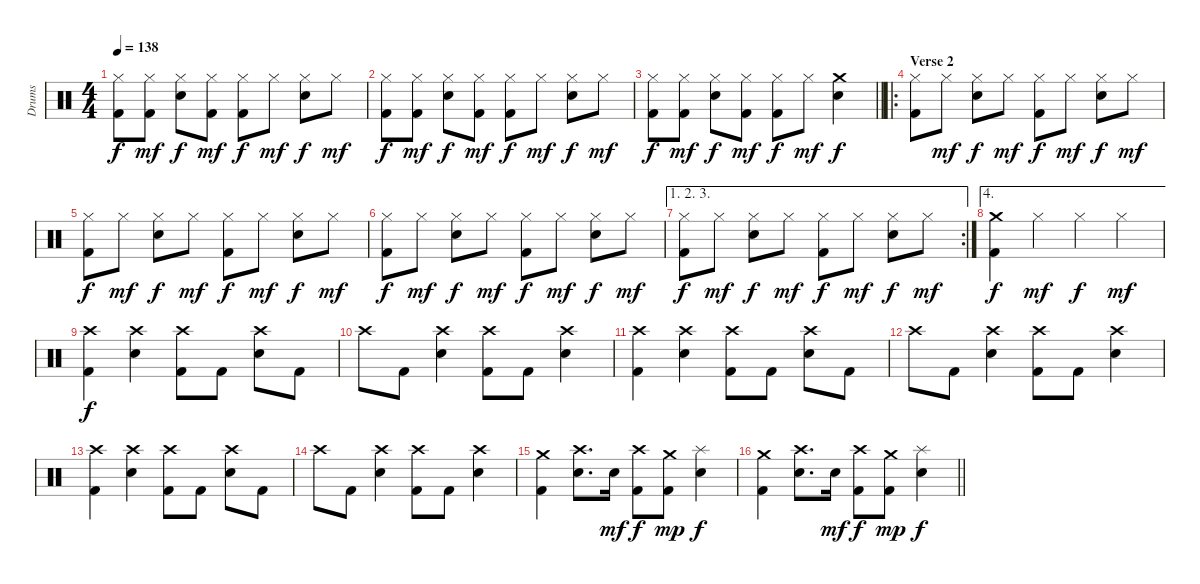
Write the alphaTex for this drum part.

\track ("Drums" "Drums") {instrument percussion}
\staff {score}
\articulation defaults
\ts (4 4)
\tempo 138
\clef neutral
\ks c
("Hi-Hat (closed)" "Kick (hit) 2").8{dy f} ("Hi-Hat (closed)" "Kick (hit) 2").8{dy mf} ("Hi-Hat (closed)" "Electric Snare (hit)").8{dy f} ("Hi-Hat (closed)" "Kick (hit) 2").8{dy mf} ("Hi-Hat (closed)" "Kick (hit) 2").8{dy f} "Hi-Hat (closed)".8{dy mf} ("Hi-Hat (closed)" "Electric Snare (hit)").8{dy f} "Hi-Hat (closed)".8{dy mf} |
("Hi-Hat (closed)" "Kick (hit) 2").8{dy f} ("Hi-Hat (closed)" "Kick (hit) 2").8{dy mf} ("Hi-Hat (closed)" "Electric Snare (hit)").8{dy f} ("Hi-Hat (closed)" "Kick (hit) 2").8{dy mf} ("Hi-Hat (closed)" "Kick (hit) 2").8{dy f} "Hi-Hat (closed)".8{dy mf} ("Hi-Hat (closed)" "Electric Snare (hit)").8{dy f} "Hi-Hat (closed)".8{dy mf} |
\barLineRight lightlight
("Hi-Hat (closed)" "Kick (hit) 2").8{dy f} ("Hi-Hat (closed)" "Kick (hit) 2").8{dy mf} ("Hi-Hat (closed)" "Electric Snare (hit)").8{dy f} ("Hi-Hat (closed)" "Kick (hit) 2").8{dy mf} ("Hi-Hat (closed)" "Kick (hit) 2").8{dy f} "Hi-Hat (closed)".8{dy mf} ("Crash medium (hit)" "Electric Snare (hit)").4{dy f} |
\ro
\section ("" "Verse 2")
("Hi-Hat (closed)" "Kick (hit) 2").8 "Hi-Hat (closed)".8{dy mf} ("Hi-Hat (closed)" "Electric Snare (hit)").8{dy f} "Hi-Hat (closed)".8{dy mf} ("Hi-Hat (closed)" "Kick (hit) 2").8{dy f} "Hi-Hat (closed)".8{dy mf} ("Hi-Hat (closed)" "Electric Snare (hit)").8{dy f} "Hi-Hat (closed)".8{dy mf} |
("Hi-Hat (closed)" "Kick (hit) 2").8{dy f} "Hi-Hat (closed)".8{dy mf} ("Hi-Hat (closed)" "Electric Snare (hit)").8{dy f} "Hi-Hat (closed)".8{dy mf} ("Hi-Hat (closed)" "Kick (hit) 2").8{dy f} "Hi-Hat (closed)".8{dy mf} ("Hi-Hat (closed)" "Electric Snare (hit)").8{dy f} "Hi-Hat (closed)".8{dy mf} |
("Hi-Hat (closed)" "Kick (hit) 2").8{dy f} "Hi-Hat (closed)".8{dy mf} ("Hi-Hat (closed)" "Electric Snare (hit)").8{dy f} "Hi-Hat (closed)".8{dy mf} ("Hi-Hat (closed)" "Kick (hit) 2").8{dy f} "Hi-Hat (closed)".8{dy mf} ("Hi-Hat (closed)" "Electric Snare (hit)").8{dy f} "Hi-Hat (closed)".8{dy mf} |
\ae (1 2 3)
\rc 2
("Hi-Hat (closed)" "Kick (hit) 2").8{dy f} "Hi-Hat (closed)".8{dy mf} ("Hi-Hat (closed)" "Electric Snare (hit)").8{dy f} "Hi-Hat (closed)".8{dy mf} ("Hi-Hat (closed)" "Kick (hit) 2").8{dy f} "Hi-Hat (closed)".8{dy mf} ("Hi-Hat (closed)" "Electric Snare (hit)").8{dy f} "Hi-Hat (closed)".8{dy mf} |
\ae 4
("Crash medium (hit)" "Kick (hit) 2").4{dy f} "Hi-Hat (closed)".4{dy mf} "Hi-Hat (closed)".4{dy f} "Hi-Hat (closed)".4{dy mf} |
("Crash high (hit)" "Kick (hit) 2").4{dy f} ("Crash high (hit)" "Electric Snare (hit)").4 ("Crash high (hit)" "Kick (hit) 2").8 "Kick (hit) 2".8 ("Crash high (hit)" "Electric Snare (hit)").8 "Kick (hit) 2".8 |
"Crash high (hit)".8 "Kick (hit) 2".8 ("Crash high (hit)" "Electric Snare (hit)").4 ("Crash high (hit)" "Kick (hit) 2").8 "Kick (hit) 2".8 ("Crash high (hit)" "Electric Snare (hit)").4 |
("Crash high (hit)" "Kick (hit) 2").4 ("Crash high (hit)" "Electric Snare (hit)").4 ("Crash high (hit)" "Kick (hit) 2").8 "Kick (hit) 2".8 ("Crash high (hit)" "Electric Snare (hit)").8 "Kick (hit) 2".8 |
"Crash high (hit)".8 "Kick (hit) 2".8 ("Crash high (hit)" "Electric Snare (hit)").4 ("Crash high (hit)" "Kick (hit) 2").8 "Kick (hit) 2".8 ("Crash high (hit)" "Electric Snare (hit)").4 |
("Crash high (hit)" "Kick (hit) 2").4 ("Crash high (hit)" "Electric Snare (hit)").4 ("Crash high (hit)" "Kick (hit) 2").8 "Kick (hit) 2".8 ("Crash high (hit)" "Electric Snare (hit)").8 "Kick (hit) 2".8 |
"Crash high (hit)".8 "Kick (hit) 2".8 ("Crash high (hit)" "Electric Snare (hit)").4 ("Crash high (hit)" "Kick (hit) 2").8 "Kick (hit) 2".8 ("Crash high (hit)" "Electric Snare (hit)").4 |
("Crash medium (hit)" "Kick (hit) 2").4 ("Crash high (hit)" "Electric Snare (hit)").8{d} "Electric Snare (hit)".16{dy mf} ("Crash high (hit)" "Kick (hit) 2").8{dy f} ("Crash medium (hit)" "Kick (hit) 2").8{dy mp} ("Splash (hit)" "Electric Snare (hit)").4{dy f} |
\barLineRight lightlight
("Crash medium (hit)" "Kick (hit) 2").4 ("Crash high (hit)" "Electric Snare (hit)").8{d} "Electric Snare (hit)".16{dy mf} ("Crash high (hit)" "Kick (hit) 2").8{dy f} ("Crash medium (hit)" "Kick (hit) 2").8{dy mp} ("Splash (hit)" "Electric Snare (hit)").4{dy f}
